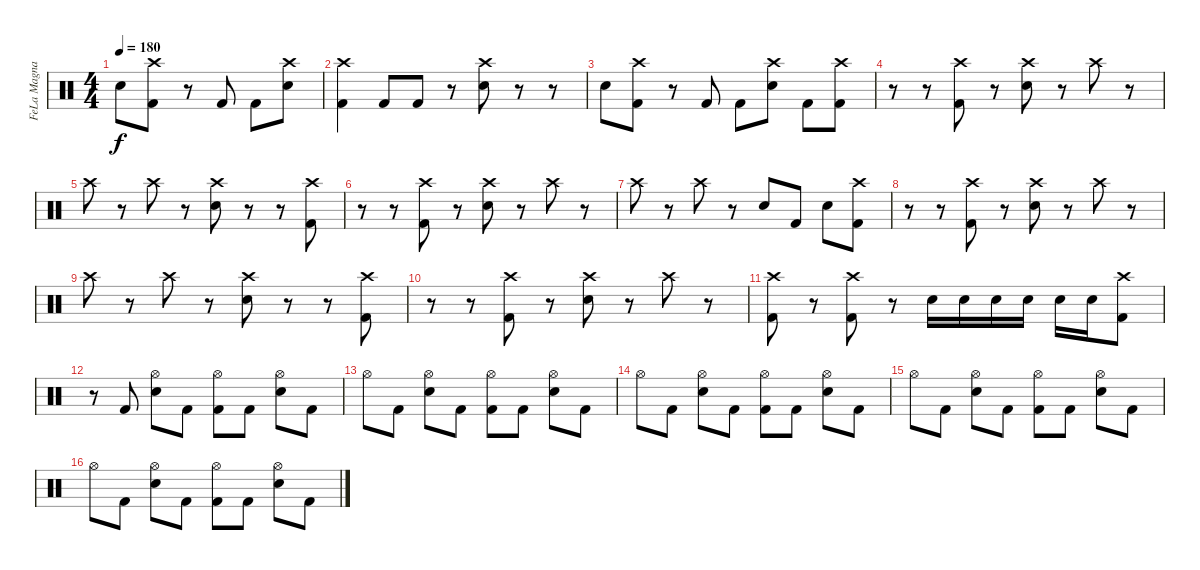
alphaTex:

\track ("FeLa Magnani" "FeLa Magna") {instrument percussion}
\staff {score}
\articulation defaults
\ts (4 4)
\tempo 180
\clef neutral
\ks c "Electric Snare (hit)".8{dy f}
("Crash high (hit)" "Kick (hit) 2").8 r.8 "Kick (hit) 2".8 "Kick (hit) 2".8 ("Crash high (hit)" "Electric Snare (hit)").8 |
("Crash high (hit)" "Kick (hit) 2").4 "Kick (hit) 2".8 "Kick (hit) 2".8 r.8 ("Crash high (hit)" "Electric Snare (hit)").8 r.8 r.8 |
"Electric Snare (hit)".8 ("Crash high (hit)" "Kick (hit) 2").8 r.8 "Kick (hit) 2".8 "Kick (hit) 2".8 ("Crash high (hit)" "Electric Snare (hit)").8 "Kick (hit) 2".8 ("Crash high (hit)" "Kick (hit) 2").8 |
r.8 r.8 ("Crash high (hit)" "Kick (hit) 2").8 r.8 ("Crash high (hit)" "Electric Snare (hit)").8 r.8 "Crash high (hit)".8 r.8 |
"Crash high (hit)".8 r.8 "Crash high (hit)".8 r.8 ("Crash high (hit)" "Electric Snare (hit)").8 r.8 r.8 ("Crash high (hit)" "Kick (hit) 2").8 |
r.8 r.8 ("Crash high (hit)" "Kick (hit) 2").8 r.8 ("Crash high (hit)" "Electric Snare (hit)").8 r.8 "Crash high (hit)".8 r.8 |
"Crash high (hit)".8 r.8 "Crash high (hit)".8 r.8 "Electric Snare (hit)".8 "Kick (hit) 2".8 "Electric Snare (hit)".8 ("Crash high (hit)" "Kick (hit) 2").8 |
r.8 r.8 ("Crash high (hit)" "Kick (hit) 2").8 r.8 ("Crash high (hit)" "Electric Snare (hit)").8 r.8 "Crash high (hit)".8 r.8 |
"Crash high (hit)".8 r.8 "Crash high (hit)".8 r.8 ("Crash high (hit)" "Electric Snare (hit)").8 r.8 r.8 ("Crash high (hit)" "Kick (hit) 2").8 |
r.8 r.8 ("Crash high (hit)" "Kick (hit) 2").8 r.8 ("Crash high (hit)" "Electric Snare (hit)").8 r.8 "Crash high (hit)".8 r.8 |
("Crash high (hit)" "Kick (hit) 2").8 r.8 ("Crash high (hit)" "Kick (hit) 2").8 r.8 "Electric Snare (hit)".16 "Electric Snare (hit)".16 "Electric Snare (hit)".16 "Electric Snare (hit)".16 "Electric Snare (hit)".16 "Electric Snare (hit)".16 ("Crash high (hit)" "Kick (hit) 2").8 |
r.8 "Kick (hit) 2".8 ("Hi-Hat (open)" "Electric Snare (hit)").8 "Kick (hit) 2".8 ("Hi-Hat (open)" "Kick (hit) 2").8 "Kick (hit) 2".8 ("Hi-Hat (open)" "Electric Snare (hit)").8 "Kick (hit) 2".8 |
"Hi-Hat (open)".8 "Kick (hit) 2".8 ("Hi-Hat (open)" "Electric Snare (hit)").8 "Kick (hit) 2".8 ("Hi-Hat (open)" "Kick (hit) 2").8 "Kick (hit) 2".8 ("Hi-Hat (open)" "Electric Snare (hit)").8 "Kick (hit) 2".8 |
"Hi-Hat (open)".8 "Kick (hit) 2".8 ("Hi-Hat (open)" "Electric Snare (hit)").8 "Kick (hit) 2".8 ("Hi-Hat (open)" "Kick (hit) 2").8 "Kick (hit) 2".8 ("Hi-Hat (open)" "Electric Snare (hit)").8 "Kick (hit) 2".8 |
"Hi-Hat (open)".8 "Kick (hit) 2".8 ("Hi-Hat (open)" "Electric Snare (hit)").8 "Kick (hit) 2".8 ("Hi-Hat (open)" "Kick (hit) 2").8 "Kick (hit) 2".8 ("Hi-Hat (open)" "Electric Snare (hit)").8 "Kick (hit) 2".8 |
"Hi-Hat (open)".8 "Kick (hit) 2".8 ("Hi-Hat (open)" "Electric Snare (hit)").8 "Kick (hit) 2".8 ("Hi-Hat (open)" "Kick (hit) 2").8 "Kick (hit) 2".8 ("Hi-Hat (open)" "Electric Snare (hit)").8 "Kick (hit) 2".8
